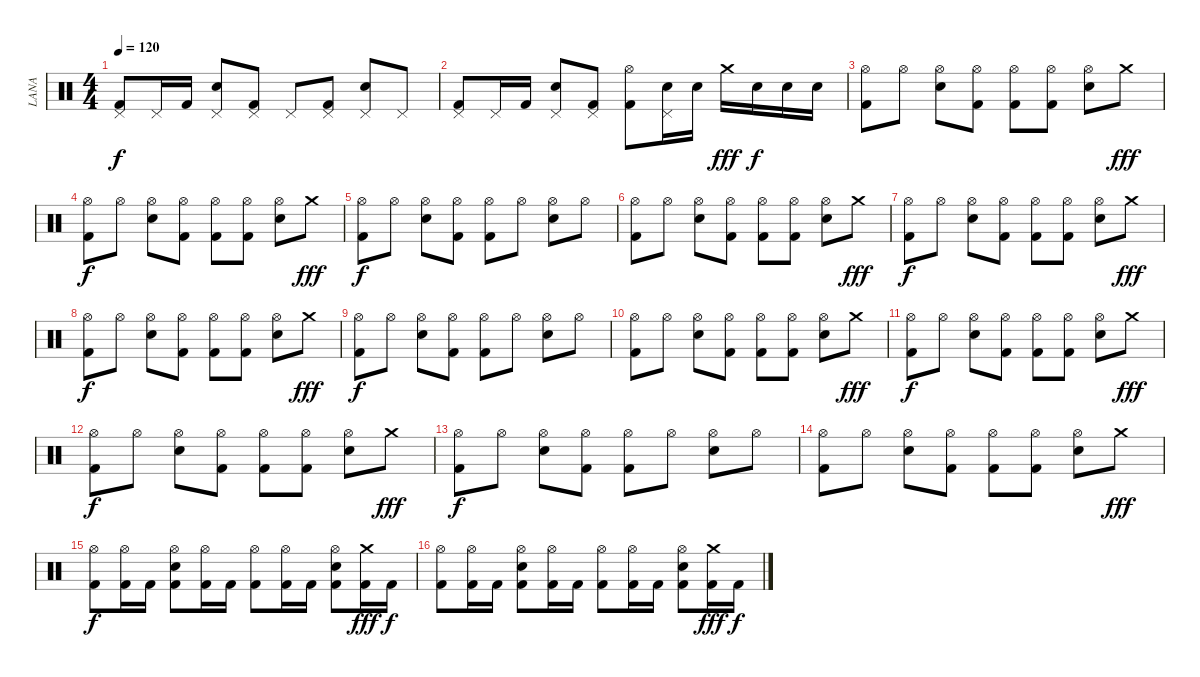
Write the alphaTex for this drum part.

\track ("LANA" "LANA") {instrument percussion}
\staff {score}
\articulation defaults
\ts (4 4)
\tempo 120
\clef neutral
\ks c
("Pedal Hi-Hat (hit)" "Kick (hit) 2").8{dy f} "Pedal Hi-Hat (hit)".16 "Kick (hit) 2".16 ("Pedal Hi-Hat (hit)" "Electric Snare (hit)").8 ("Pedal Hi-Hat (hit)" "Kick (hit) 2").8 "Pedal Hi-Hat (hit)".8 ("Pedal Hi-Hat (hit)" "Kick (hit) 2").8 ("Pedal Hi-Hat (hit)" "Electric Snare (hit)").8 "Pedal Hi-Hat (hit)".8 |
("Pedal Hi-Hat (hit)" "Kick (hit) 2").8 "Pedal Hi-Hat (hit)".16 "Kick (hit) 2".16 ("Pedal Hi-Hat (hit)" "Electric Snare (hit)").8 ("Pedal Hi-Hat (hit)" "Kick (hit) 2").8 ("Hi-Hat (open)" "Kick (hit) 2").8 ("Pedal Hi-Hat (hit)" "Electric Snare (hit)").16 "Electric Snare (hit)".16 "Crash medium (hit)".16{dy fff} "Electric Snare (hit)".16{dy f} "Electric Snare (hit)".16 "Electric Snare (hit)".16 |
("Hi-Hat (open)" "Kick (hit) 2").8 "Hi-Hat (open)".8 ("Hi-Hat (open)" "Electric Snare (hit)").8 ("Hi-Hat (open)" "Kick (hit) 2").8 ("Hi-Hat (open)" "Kick (hit) 2").8 ("Hi-Hat (open)" "Kick (hit) 2").8 ("Hi-Hat (open)" "Electric Snare (hit)").8 "Crash medium (hit)".8{dy fff} |
("Hi-Hat (open)" "Kick (hit) 2").8{dy f} "Hi-Hat (open)".8 ("Hi-Hat (open)" "Electric Snare (hit)").8 ("Hi-Hat (open)" "Kick (hit) 2").8 ("Hi-Hat (open)" "Kick (hit) 2").8 ("Hi-Hat (open)" "Kick (hit) 2").8 ("Hi-Hat (open)" "Electric Snare (hit)").8 "Crash medium (hit)".8{dy fff} |
("Hi-Hat (open)" "Kick (hit) 2").8{dy f} "Hi-Hat (open)".8 ("Hi-Hat (open)" "Electric Snare (hit)").8 ("Hi-Hat (open)" "Kick (hit) 2").8 ("Hi-Hat (open)" "Kick (hit) 2").8 "Hi-Hat (open)".8 ("Hi-Hat (open)" "Electric Snare (hit)").8 "Hi-Hat (open)".8 |
("Hi-Hat (open)" "Kick (hit) 2").8 "Hi-Hat (open)".8 ("Hi-Hat (open)" "Electric Snare (hit)").8 ("Hi-Hat (open)" "Kick (hit) 2").8 ("Hi-Hat (open)" "Kick (hit) 2").8 ("Hi-Hat (open)" "Kick (hit) 2").8 ("Hi-Hat (open)" "Electric Snare (hit)").8 "Crash medium (hit)".8{dy fff} |
("Hi-Hat (open)" "Kick (hit) 2").8{dy f} "Hi-Hat (open)".8 ("Hi-Hat (open)" "Electric Snare (hit)").8 ("Hi-Hat (open)" "Kick (hit) 2").8 ("Hi-Hat (open)" "Kick (hit) 2").8 ("Hi-Hat (open)" "Kick (hit) 2").8 ("Hi-Hat (open)" "Electric Snare (hit)").8 "Crash medium (hit)".8{dy fff} |
("Hi-Hat (open)" "Kick (hit) 2").8{dy f} "Hi-Hat (open)".8 ("Hi-Hat (open)" "Electric Snare (hit)").8 ("Hi-Hat (open)" "Kick (hit) 2").8 ("Hi-Hat (open)" "Kick (hit) 2").8 ("Hi-Hat (open)" "Kick (hit) 2").8 ("Hi-Hat (open)" "Electric Snare (hit)").8 "Crash medium (hit)".8{dy fff} |
("Hi-Hat (open)" "Kick (hit) 2").8{dy f} "Hi-Hat (open)".8 ("Hi-Hat (open)" "Electric Snare (hit)").8 ("Hi-Hat (open)" "Kick (hit) 2").8 ("Hi-Hat (open)" "Kick (hit) 2").8 "Hi-Hat (open)".8 ("Hi-Hat (open)" "Electric Snare (hit)").8 "Hi-Hat (open)".8 |
("Hi-Hat (open)" "Kick (hit) 2").8 "Hi-Hat (open)".8 ("Hi-Hat (open)" "Electric Snare (hit)").8 ("Hi-Hat (open)" "Kick (hit) 2").8 ("Hi-Hat (open)" "Kick (hit) 2").8 ("Hi-Hat (open)" "Kick (hit) 2").8 ("Hi-Hat (open)" "Electric Snare (hit)").8 "Crash medium (hit)".8{dy fff} |
("Hi-Hat (open)" "Kick (hit) 2").8{dy f} "Hi-Hat (open)".8 ("Hi-Hat (open)" "Electric Snare (hit)").8 ("Hi-Hat (open)" "Kick (hit) 2").8 ("Hi-Hat (open)" "Kick (hit) 2").8 ("Hi-Hat (open)" "Kick (hit) 2").8 ("Hi-Hat (open)" "Electric Snare (hit)").8 "Crash medium (hit)".8{dy fff} |
("Hi-Hat (open)" "Kick (hit) 2").8{dy f} "Hi-Hat (open)".8 ("Hi-Hat (open)" "Electric Snare (hit)").8 ("Hi-Hat (open)" "Kick (hit) 2").8 ("Hi-Hat (open)" "Kick (hit) 2").8 ("Hi-Hat (open)" "Kick (hit) 2").8 ("Hi-Hat (open)" "Electric Snare (hit)").8 "Crash medium (hit)".8{dy fff} |
("Hi-Hat (open)" "Kick (hit) 2").8{dy f} "Hi-Hat (open)".8 ("Hi-Hat (open)" "Electric Snare (hit)").8 ("Hi-Hat (open)" "Kick (hit) 2").8 ("Hi-Hat (open)" "Kick (hit) 2").8 "Hi-Hat (open)".8 ("Hi-Hat (open)" "Electric Snare (hit)").8 "Hi-Hat (open)".8 |
("Hi-Hat (open)" "Kick (hit) 2").8 "Hi-Hat (open)".8 ("Hi-Hat (open)" "Electric Snare (hit)").8 ("Hi-Hat (open)" "Kick (hit) 2").8 ("Hi-Hat (open)" "Kick (hit) 2").8 ("Hi-Hat (open)" "Kick (hit) 2").8 ("Hi-Hat (open)" "Electric Snare (hit)").8 "Crash medium (hit)".8{dy fff} |
("Hi-Hat (open)" "Kick (hit) 2").8{dy f volume 6} ("Hi-Hat (open)" "Kick (hit) 2").16 "Kick (hit) 2".16 ("Hi-Hat (open)" "Electric Snare (hit)" "Kick (hit) 2").8 ("Hi-Hat (open)" "Kick (hit) 2").16 "Kick (hit) 2".16 ("Hi-Hat (open)" "Kick (hit) 2").8 ("Hi-Hat (open)" "Kick (hit) 2").16 "Kick (hit) 2".16 ("Hi-Hat (open)" "Electric Snare (hit)" "Kick (hit) 2").8 ("Crash medium (hit)" "Kick (hit) 2").16{dy fff} "Kick (hit) 2".16{dy f} |
("Hi-Hat (open)" "Kick (hit) 2").8 ("Hi-Hat (open)" "Kick (hit) 2").16 "Kick (hit) 2".16 ("Hi-Hat (open)" "Electric Snare (hit)" "Kick (hit) 2").8 ("Hi-Hat (open)" "Kick (hit) 2").16 "Kick (hit) 2".16 ("Hi-Hat (open)" "Kick (hit) 2").8 ("Hi-Hat (open)" "Kick (hit) 2").16 "Kick (hit) 2".16 ("Hi-Hat (open)" "Electric Snare (hit)" "Kick (hit) 2").8 ("Crash medium (hit)" "Kick (hit) 2").16{dy fff} "Kick (hit) 2".16{dy f}
